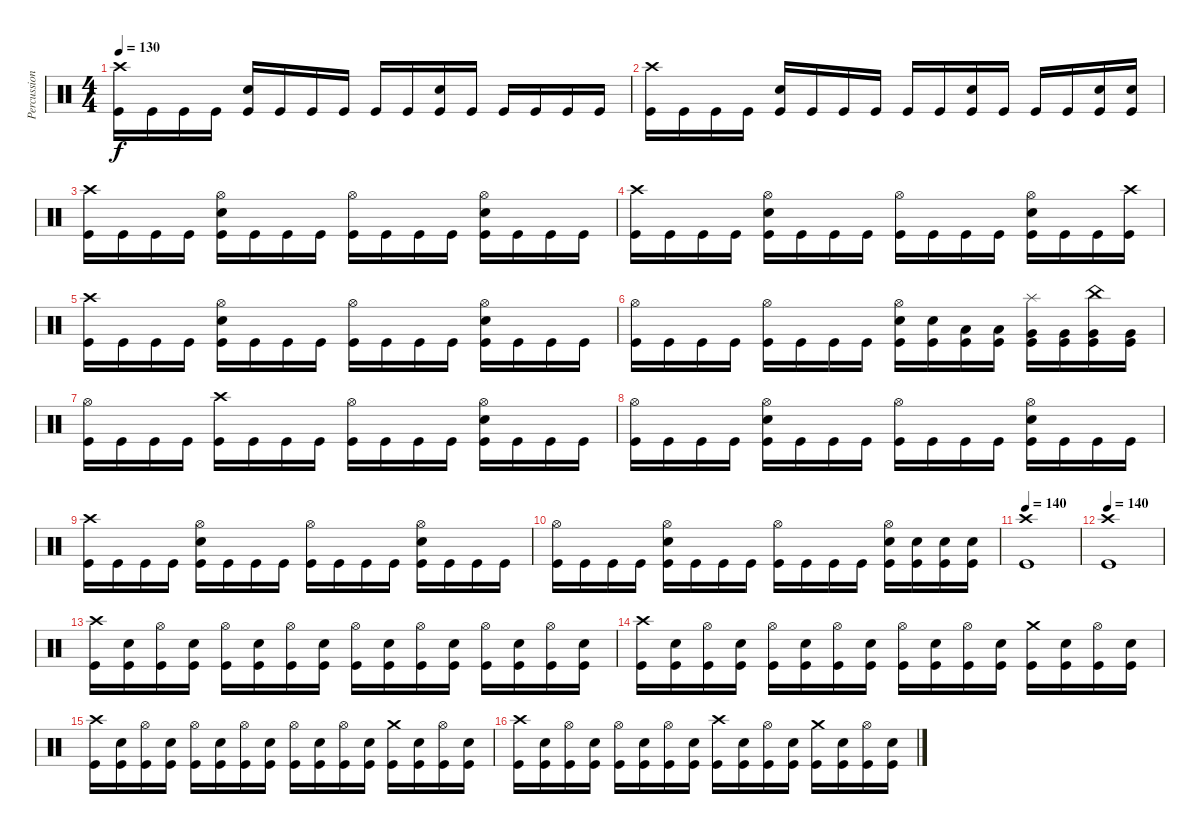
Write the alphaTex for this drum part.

\track ("Percussion" "Percussion") {instrument percussion}
\staff {score}
\articulation defaults
\ts (4 4)
\tempo 130
\clef neutral
\ks c
("Crash high (hit)" "Kick (hit)").16{dy f} "Kick (hit)".16 "Kick (hit)".16 "Kick (hit)".16 ("Snare (hit) 2" "Kick (hit)").16 "Kick (hit)".16 "Kick (hit)".16 "Kick (hit)".16 "Kick (hit)".16 "Kick (hit)".16 ("Snare (hit) 2" "Kick (hit)").16 "Kick (hit)".16 "Kick (hit)".16 "Kick (hit)".16 "Kick (hit)".16 "Kick (hit)".16 |
("Crash high (hit)" "Kick (hit)").16 "Kick (hit)".16 "Kick (hit)".16 "Kick (hit)".16 ("Snare (hit) 2" "Kick (hit)").16 "Kick (hit)".16 "Kick (hit)".16 "Kick (hit)".16 "Kick (hit)".16 "Kick (hit)".16 ("Snare (hit) 2" "Kick (hit)").16 "Kick (hit)".16 "Kick (hit)".16 "Kick (hit)".16 ("Snare (hit) 2" "Kick (hit)").16 ("Snare (hit) 2" "Kick (hit)").16 |
("Crash high (hit)" "Kick (hit)").16 "Kick (hit)".16 "Kick (hit)".16 "Kick (hit)".16 ("Hi-Hat (open)" "Snare (hit) 2" "Kick (hit)").16 "Kick (hit)".16 "Kick (hit)".16 "Kick (hit)".16 ("Hi-Hat (open)" "Kick (hit)").16 "Kick (hit)".16 "Kick (hit)".16 "Kick (hit)".16 ("Hi-Hat (open)" "Snare (hit) 2" "Kick (hit)").16 "Kick (hit)".16 "Kick (hit)".16 "Kick (hit)".16 |
("Crash high (hit)" "Kick (hit)").16 "Kick (hit)".16 "Kick (hit)".16 "Kick (hit)".16 ("Hi-Hat (open)" "Snare (hit) 2" "Kick (hit)").16 "Kick (hit)".16 "Kick (hit)".16 "Kick (hit)".16 ("Hi-Hat (open)" "Kick (hit)").16 "Kick (hit)".16 "Kick (hit)".16 "Kick (hit)".16 ("Hi-Hat (open)" "Snare (hit) 2" "Kick (hit)").16 "Kick (hit)".16 "Kick (hit)".16 ("Crash high (hit)" "Kick (hit)").16 |
("Crash high (hit)" "Kick (hit)").16 "Kick (hit)".16 "Kick (hit)".16 "Kick (hit)".16 ("Hi-Hat (open)" "Snare (hit) 2" "Kick (hit)").16 "Kick (hit)".16 "Kick (hit)".16 "Kick (hit)".16 ("Hi-Hat (open)" "Kick (hit)").16 "Kick (hit)".16 "Kick (hit)".16 "Kick (hit)".16 ("Hi-Hat (open)" "Snare (hit) 2" "Kick (hit)").16 "Kick (hit)".16 "Kick (hit)".16 "Kick (hit)".16 |
("Hi-Hat (open)" "Kick (hit)").16 "Kick (hit)".16 "Kick (hit)".16 "Kick (hit)".16 ("Hi-Hat (open)" "Kick (hit)").16 "Kick (hit)".16 "Kick (hit)".16 "Kick (hit)".16 ("Hi-Hat (open)" "Snare (hit) 2" "Kick (hit)").16 ("Snare (hit) 2" "Kick (hit)").16 ("Low Tom (hit)" "Kick (hit)").16 ("Low Tom (hit)" "Kick (hit)").16 ("Splash (hit)" "Very Low Tom (hit)" "Kick (hit)").16 ("Very Low Tom (hit)" "Kick (hit)").16 ("China (hit)" "Very Low Tom (hit)" "Kick (hit)").16 ("Very Low Tom (hit)" "Kick (hit)").16 |
("Hi-Hat (open)" "Kick (hit)").16 "Kick (hit)".16 "Kick (hit)".16 "Kick (hit)".16 ("Crash high (hit)" "Kick (hit)").16 "Kick (hit)".16 "Kick (hit)".16 "Kick (hit)".16 ("Hi-Hat (open)" "Kick (hit)").16 "Kick (hit)".16 "Kick (hit)".16 "Kick (hit)".16 ("Hi-Hat (open)" "Snare (hit) 2" "Kick (hit)").16 "Kick (hit)".16 "Kick (hit)".16 "Kick (hit)".16 |
("Hi-Hat (open)" "Kick (hit)").16 "Kick (hit)".16 "Kick (hit)".16 "Kick (hit)".16 ("Hi-Hat (open)" "Snare (hit) 2" "Kick (hit)").16 "Kick (hit)".16 "Kick (hit)".16 "Kick (hit)".16 ("Hi-Hat (open)" "Kick (hit)").16 "Kick (hit)".16 "Kick (hit)".16 "Kick (hit)".16 ("Hi-Hat (open)" "Snare (hit) 2" "Kick (hit)").16 "Kick (hit)".16 "Kick (hit)".16 "Kick (hit)".16 |
("Crash high (hit)" "Kick (hit)").16 "Kick (hit)".16 "Kick (hit)".16 "Kick (hit)".16 ("Hi-Hat (open)" "Snare (hit) 2" "Kick (hit)").16 "Kick (hit)".16 "Kick (hit)".16 "Kick (hit)".16 ("Hi-Hat (open)" "Kick (hit)").16 "Kick (hit)".16 "Kick (hit)".16 "Kick (hit)".16 ("Hi-Hat (open)" "Snare (hit) 2" "Kick (hit)").16 "Kick (hit)".16 "Kick (hit)".16 "Kick (hit)".16 |
("Hi-Hat (open)" "Kick (hit)").16 "Kick (hit)".16 "Kick (hit)".16 "Kick (hit)".16 ("Hi-Hat (open)" "Snare (hit) 2" "Kick (hit)").16 "Kick (hit)".16 "Kick (hit)".16 "Kick (hit)".16 ("Hi-Hat (open)" "Kick (hit)").16 "Kick (hit)".16 "Kick (hit)".16 "Kick (hit)".16 ("Hi-Hat (open)" "Snare (hit) 2" "Kick (hit)").16 ("Snare (hit) 2" "Kick (hit)").16 ("Snare (hit) 2" "Kick (hit)").16 ("Snare (hit) 2" "Kick (hit)").16 |
\tempo 140
("Crash high (hit)" "Kick (hit)").1 |
\tempo 140
("Crash high (hit)" "Kick (hit)").1 |
("Crash high (hit)" "Kick (hit)").16 ("Snare (hit) 2" "Kick (hit)").16 ("Hi-Hat (open)" "Kick (hit)").16 ("Snare (hit) 2" "Kick (hit)").16 ("Hi-Hat (open)" "Kick (hit)").16 ("Snare (hit) 2" "Kick (hit)").16 ("Hi-Hat (open)" "Kick (hit)").16 ("Snare (hit) 2" "Kick (hit)").16 ("Hi-Hat (open)" "Kick (hit)").16 ("Snare (hit) 2" "Kick (hit)").16 ("Hi-Hat (open)" "Kick (hit)").16 ("Snare (hit) 2" "Kick (hit)").16 ("Hi-Hat (open)" "Kick (hit)").16 ("Snare (hit) 2" "Kick (hit)").16 ("Hi-Hat (open)" "Kick (hit)").16 ("Snare (hit) 2" "Kick (hit)").16 |
("Crash high (hit)" "Kick (hit)").16 ("Snare (hit) 2" "Kick (hit)").16 ("Hi-Hat (open)" "Kick (hit)").16 ("Snare (hit) 2" "Kick (hit)").16 ("Hi-Hat (open)" "Kick (hit)").16 ("Snare (hit) 2" "Kick (hit)").16 ("Hi-Hat (open)" "Kick (hit)").16 ("Snare (hit) 2" "Kick (hit)").16 ("Hi-Hat (open)" "Kick (hit)").16 ("Snare (hit) 2" "Kick (hit)").16 ("Hi-Hat (open)" "Kick (hit)").16 ("Snare (hit) 2" "Kick (hit)").16 ("Crash medium (hit)" "Kick (hit)").16 ("Snare (hit) 2" "Kick (hit)").16 ("Hi-Hat (open)" "Kick (hit)").16 ("Snare (hit) 2" "Kick (hit)").16 |
("Crash high (hit)" "Kick (hit)").16 ("Snare (hit) 2" "Kick (hit)").16 ("Hi-Hat (open)" "Kick (hit)").16 ("Snare (hit) 2" "Kick (hit)").16 ("Hi-Hat (open)" "Kick (hit)").16 ("Snare (hit) 2" "Kick (hit)").16 ("Hi-Hat (open)" "Kick (hit)").16 ("Snare (hit) 2" "Kick (hit)").16 ("Hi-Hat (open)" "Kick (hit)").16 ("Snare (hit) 2" "Kick (hit)").16 ("Hi-Hat (open)" "Kick (hit)").16 ("Snare (hit) 2" "Kick (hit)").16 ("Crash medium (hit)" "Kick (hit)").16 ("Snare (hit) 2" "Kick (hit)").16 ("Hi-Hat (open)" "Kick (hit)").16 ("Snare (hit) 2" "Kick (hit)").16 |
("Crash high (hit)" "Kick (hit)").16 ("Snare (hit) 2" "Kick (hit)").16 ("Hi-Hat (open)" "Kick (hit)").16 ("Snare (hit) 2" "Kick (hit)").16 ("Hi-Hat (open)" "Kick (hit)").16 ("Snare (hit) 2" "Kick (hit)").16 ("Hi-Hat (open)" "Kick (hit)").16 ("Snare (hit) 2" "Kick (hit)").16 ("Crash high (hit)" "Kick (hit)").16 ("Snare (hit) 2" "Kick (hit)").16 ("Hi-Hat (open)" "Kick (hit)").16 ("Snare (hit) 2" "Kick (hit)").16 ("Crash medium (hit)" "Kick (hit)").16 ("Snare (hit) 2" "Kick (hit)").16 ("Hi-Hat (open)" "Kick (hit)").16 ("Snare (hit) 2" "Kick (hit)").16
